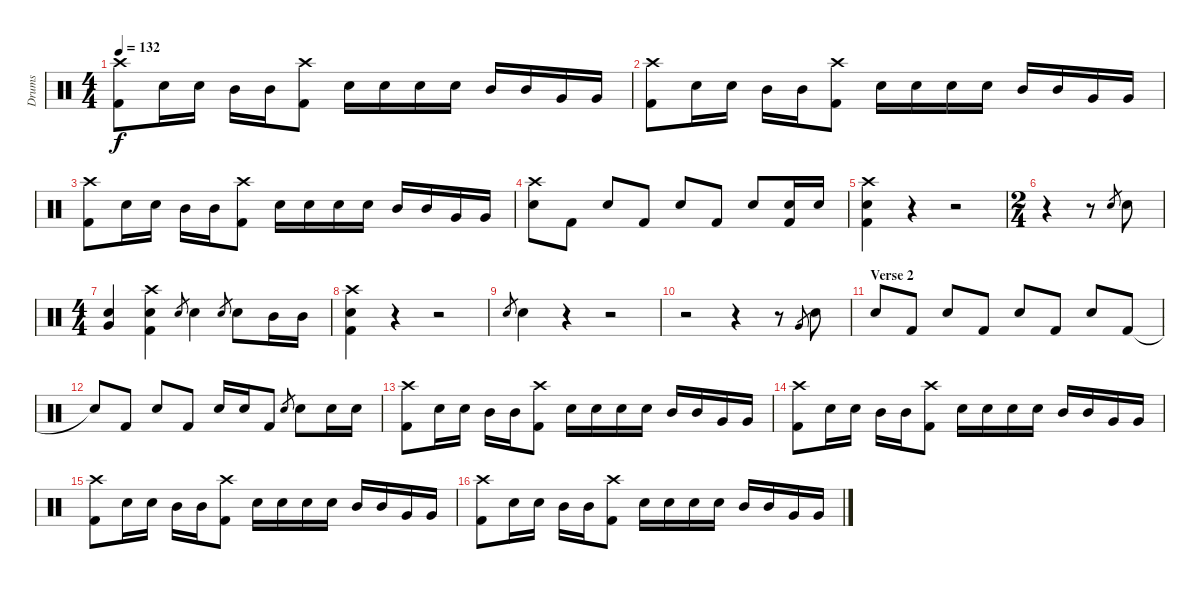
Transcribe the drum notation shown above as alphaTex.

\track ("Drums" "Drums") {instrument percussion}
\staff {score}
\articulation defaults
\ts (4 4)
\tempo 132
\clef neutral
\ks c
("Crash high (hit)" "Kick (hit) 2").8{dy f} "Electric Snare (hit)".16 "Electric Snare (hit)".16 "Mid Tom (hit)".16 "Mid Tom (hit)".16 ("Crash high (hit)" "Kick (hit) 2").8 "Electric Snare (hit)".16 "Electric Snare (hit)".16 "Electric Snare (hit)".16 "Electric Snare (hit)".16 "Mid Tom (hit)".16 "Mid Tom (hit)".16 "Very Low Tom (hit)".16 "Very Low Tom (hit)".16 |
("Crash high (hit)" "Kick (hit) 2").8 "Electric Snare (hit)".16 "Electric Snare (hit)".16 "Mid Tom (hit)".16 "Mid Tom (hit)".16 ("Crash high (hit)" "Kick (hit) 2").8 "Electric Snare (hit)".16 "Electric Snare (hit)".16 "Electric Snare (hit)".16 "Electric Snare (hit)".16 "Mid Tom (hit)".16 "Mid Tom (hit)".16 "Very Low Tom (hit)".16 "Very Low Tom (hit)".16 |
("Crash high (hit)" "Kick (hit) 2").8 "Electric Snare (hit)".16 "Electric Snare (hit)".16 "Mid Tom (hit)".16 "Mid Tom (hit)".16 ("Crash high (hit)" "Kick (hit) 2").8 "Electric Snare (hit)".16 "Electric Snare (hit)".16 "Electric Snare (hit)".16 "Electric Snare (hit)".16 "Mid Tom (hit)".16 "Mid Tom (hit)".16 "Very Low Tom (hit)".16 "Very Low Tom (hit)".16 |
("Crash high (hit)" "Electric Snare (hit)").8 "Kick (hit) 2".8 "Electric Snare (hit)".8 "Kick (hit) 2".8 "Electric Snare (hit)".8 "Kick (hit) 2".8 "Electric Snare (hit)".8 ("Electric Snare (hit)" "Kick (hit) 2").16 "Electric Snare (hit)".16 |
("Crash high (hit)" "Electric Snare (hit)" "Kick (hit) 2").4 r.4 r.2 |
\ts (2 4)
r.4 r.8 "Electric Snare (hit)".8{gr} "Electric Snare (hit)".8 |
\ts (4 4)
("Very Low Tom (hit)" "Electric Snare (hit)").4 ("Crash high (hit)" "Electric Snare (hit)" "Kick (hit) 2").4 "Electric Snare (hit)".8{gr} "Electric Snare (hit)".4 "Electric Snare (hit)".8{gr} "Electric Snare (hit)".8 "Mid Tom (hit)".16 "Mid Tom (hit)".16 |
("Crash high (hit)" "Electric Snare (hit)" "Kick (hit) 2").4 r.4 r.2 |
"Electric Snare (hit)".8{gr} "Electric Snare (hit)".4 r.4 r.2 |
r.2 r.4 r.8 "Very Low Tom (hit)".8{gr} "Electric Snare (hit)".8 |
\section ("" "Verse 2")
"Electric Snare (hit)".8 "Kick (hit) 2".8 "Electric Snare (hit)".8 "Kick (hit) 2".8 "Electric Snare (hit)".8 "Kick (hit) 2".8 "Electric Snare (hit)".8 "Kick (hit) 2".8 |
"Snare (hit)"{t}.8 "Kick (hit) 2".8 "Electric Snare (hit)".8 "Kick (hit) 2".8 "Electric Snare (hit)".16 "Electric Snare (hit)".16 "Kick (hit) 2".8 "Electric Snare (hit)".8{gr} "Electric Snare (hit)".8 "Electric Snare (hit)".16 "Electric Snare (hit)".16 |
("Crash high (hit)" "Kick (hit) 2").8 "Electric Snare (hit)".16 "Electric Snare (hit)".16 "Mid Tom (hit)".16 "Mid Tom (hit)".16 ("Crash high (hit)" "Kick (hit) 2").8 "Electric Snare (hit)".16 "Electric Snare (hit)".16 "Electric Snare (hit)".16 "Electric Snare (hit)".16 "Mid Tom (hit)".16 "Mid Tom (hit)".16 "Very Low Tom (hit)".16 "Very Low Tom (hit)".16 |
("Crash high (hit)" "Kick (hit) 2").8 "Electric Snare (hit)".16 "Electric Snare (hit)".16 "Mid Tom (hit)".16 "Mid Tom (hit)".16 ("Crash high (hit)" "Kick (hit) 2").8 "Electric Snare (hit)".16 "Electric Snare (hit)".16 "Electric Snare (hit)".16 "Electric Snare (hit)".16 "Mid Tom (hit)".16 "Mid Tom (hit)".16 "Very Low Tom (hit)".16 "Very Low Tom (hit)".16 |
("Crash high (hit)" "Kick (hit) 2").8 "Electric Snare (hit)".16 "Electric Snare (hit)".16 "Mid Tom (hit)".16 "Mid Tom (hit)".16 ("Crash high (hit)" "Kick (hit) 2").8 "Electric Snare (hit)".16 "Electric Snare (hit)".16 "Electric Snare (hit)".16 "Electric Snare (hit)".16 "Mid Tom (hit)".16 "Mid Tom (hit)".16 "Very Low Tom (hit)".16 "Very Low Tom (hit)".16 |
("Crash high (hit)" "Kick (hit) 2").8 "Electric Snare (hit)".16 "Electric Snare (hit)".16 "Mid Tom (hit)".16 "Mid Tom (hit)".16 ("Crash high (hit)" "Kick (hit) 2").8 "Electric Snare (hit)".16 "Electric Snare (hit)".16 "Electric Snare (hit)".16 "Electric Snare (hit)".16 "Mid Tom (hit)".16 "Mid Tom (hit)".16 "Very Low Tom (hit)".16 "Very Low Tom (hit)".16
